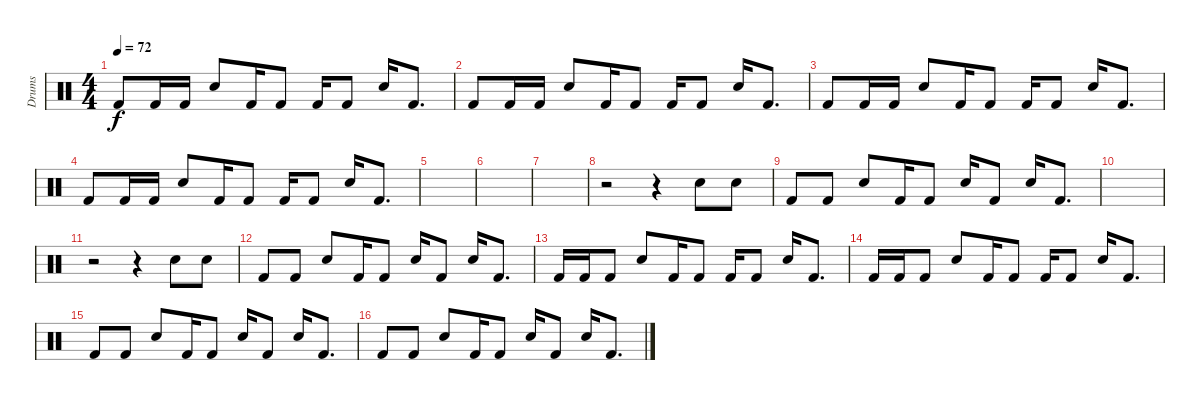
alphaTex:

\track ("Drums" "Drums") {instrument percussion}
\staff {score}
\articulation defaults
\ts (4 4)
\tempo 72
\clef neutral
\ks c "Kick (hit) 2".8{dy f} "Kick (hit) 2".16 "Kick (hit) 2".16 "Snare (hit) 2".8 "Kick (hit) 2".16 "Kick (hit) 2".8 "Kick (hit) 2".16 "Kick (hit) 2".8 "Snare (hit) 2".16 "Kick (hit) 2".8{d}
|
"Kick (hit) 2".8 "Kick (hit) 2".16 "Kick (hit) 2".16 "Snare (hit) 2".8 "Kick (hit) 2".16 "Kick (hit) 2".8 "Kick (hit) 2".16 "Kick (hit) 2".8 "Snare (hit) 2".16 "Kick (hit) 2".8{d} |
"Kick (hit) 2".8 "Kick (hit) 2".16 "Kick (hit) 2".16 "Snare (hit) 2".8 "Kick (hit) 2".16 "Kick (hit) 2".8 "Kick (hit) 2".16 "Kick (hit) 2".8 "Snare (hit) 2".16 "Kick (hit) 2".8{d} |
"Kick (hit) 2".8 "Kick (hit) 2".16 "Kick (hit) 2".16 "Snare (hit) 2".8 "Kick (hit) 2".16 "Kick (hit) 2".8 "Kick (hit) 2".16 "Kick (hit) 2".8 "Snare (hit) 2".16 "Kick (hit) 2".8{d} |
|
|
|
r.2 r.4 "Snare (hit) 2".8 "Snare (hit) 2".8 |
"Kick (hit) 2".8 "Kick (hit) 2".8 "Snare (hit) 2".8 "Kick (hit) 2".16 "Kick (hit) 2".8 "Snare (hit) 2".16 "Kick (hit) 2".8 "Snare (hit) 2".16 "Kick (hit) 2".8{d} |
|
r.2 r.4 "Snare (hit) 2".8 "Snare (hit) 2".8 |
"Kick (hit) 2".8 "Kick (hit) 2".8 "Snare (hit) 2".8 "Kick (hit) 2".16 "Kick (hit) 2".8 "Snare (hit) 2".16 "Kick (hit) 2".8 "Snare (hit) 2".16 "Kick (hit) 2".8{d} |
"Kick (hit) 2".16 "Kick (hit) 2".16 "Kick (hit) 2".8 "Snare (hit) 2".8 "Kick (hit) 2".16 "Kick (hit) 2".8 "Kick (hit) 2".16 "Kick (hit) 2".8 "Snare (hit) 2".16 "Kick (hit) 2".8{d} |
"Kick (hit) 2".16 "Kick (hit) 2".16 "Kick (hit) 2".8 "Snare (hit) 2".8 "Kick (hit) 2".16 "Kick (hit) 2".8 "Kick (hit) 2".16 "Kick (hit) 2".8 "Snare (hit) 2".16 "Kick (hit) 2".8{d} |
"Kick (hit) 2".8 "Kick (hit) 2".8 "Snare (hit) 2".8 "Kick (hit) 2".16 "Kick (hit) 2".8 "Snare (hit) 2".16 "Kick (hit) 2".8 "Snare (hit) 2".16 "Kick (hit) 2".8{d} |
"Kick (hit) 2".8 "Kick (hit) 2".8 "Snare (hit) 2".8 "Kick (hit) 2".16 "Kick (hit) 2".8 "Snare (hit) 2".16 "Kick (hit) 2".8 "Snare (hit) 2".16 "Kick (hit) 2".8{d}
